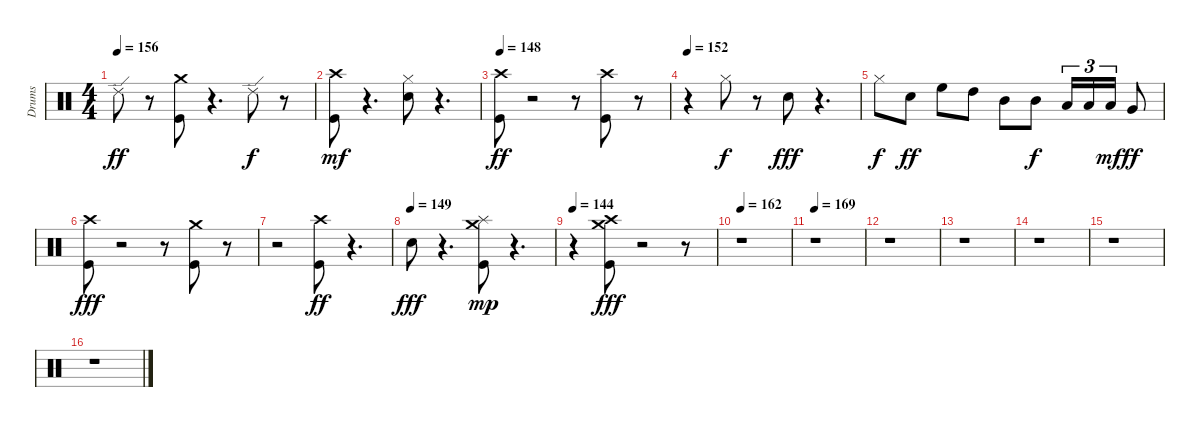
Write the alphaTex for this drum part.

\track ("Drums" "Drums") {instrument percussion}
\staff {score}
\articulation defaults
\ts (4 4)
\tempo 156
\clef neutral
\ks c "Ride (edge) 2".8{dy ff}
r.8 ("Kick (hit)" "Crash medium (hit)").8 r.4{d} "Ride (edge) 2".8{dy f} r.8 |
("Kick (hit)" "Crash high (hit)").8{dy mf} r.4{d} ("Electric Snare (hit)" "Hi-Hat (closed)").8 r.4{d} |
\tempo 148
("Kick (hit)" "Crash high (hit)").8{dy ff} r.2 r.8 ("Kick (hit)" "Crash high (hit)").8 r.8 |
\tempo 152
r.4 "Hi-Hat (closed)".8{dy f} r.8 "Electric Snare (hit)".8{dy fff} r.4{d} |
"Hi-Hat (closed)".8{dy f} "Electric Snare (hit)".8{dy ff} "High Floor Tom (hit)".8 "High Tom (hit)".8 "Mid Tom (hit)".8 "Mid Tom (hit)".8{dy f} "Low Tom (hit)".16{tu (3 2)} "Low Tom (hit)".16{tu (3 2)} "Low Tom (hit)".16{tu (3 2) dy mf} "Very Low Tom (hit)".8{dy ff} |
("Kick (hit)" "Crash high (hit)").8{dy fff} r.2 r.8 ("Kick (hit)" "Crash medium (hit)").8 r.8 |
r.2 ("Kick (hit)" "Crash high (hit)").8{dy ff} r.4{d} |
\tempo (149)
"Electric Snare (hit)".8{dy fff} r.4{d} ("Kick (hit)" "Splash (hit)" "Crash medium (hit)").8{dy mp} r.4{d} |
\tempo 144
r.4 ("Kick (hit)" "Crash high (hit)" "Crash medium (hit)").8{dy fff} r.2 r.8 |
\tempo 162
r.1 |
\tempo 169
r.1 |
r.1 |
r.1 |
r.1 |
r.1 |
r.1
